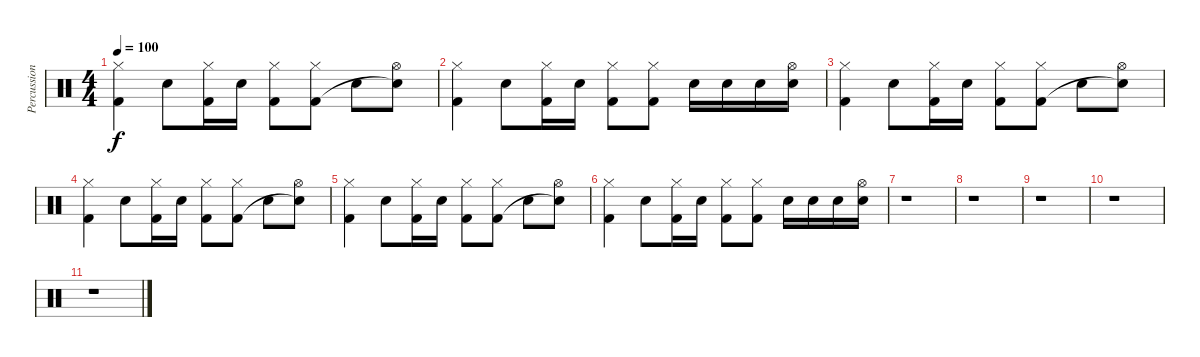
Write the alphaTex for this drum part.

\track ("Percussion" "Percussion") {instrument percussion}
\staff {score}
\articulation defaults
\ts (4 4)
\tempo 100
\clef neutral
\ks c
("Hi-Hat (closed)" "Kick (hit) 2").4{dy f} "Electric Snare (hit)".8 ("Hi-Hat (closed)" "Kick (hit) 2").16 "Electric Snare (hit)".16 ("Hi-Hat (closed)" "Kick (hit) 2").8 ("Hi-Hat (closed)" "Kick (hit) 2").8 "Electric Snare (hit)".8 ("Hi-Hat (open)" "Snare (hit)"{t}).8 |
("Hi-Hat (closed)" "Kick (hit) 2").4 "Electric Snare (hit)".8 ("Hi-Hat (closed)" "Kick (hit) 2").16 "Electric Snare (hit)".16 ("Hi-Hat (closed)" "Kick (hit) 2").8 ("Hi-Hat (closed)" "Kick (hit) 2").8 "Electric Snare (hit)".16 "Electric Snare (hit)".16 "Electric Snare (hit)".16 ("Hi-Hat (open)" "Electric Snare (hit)").16 |
("Hi-Hat (closed)" "Kick (hit) 2").4 "Electric Snare (hit)".8 ("Hi-Hat (closed)" "Kick (hit) 2").16 "Electric Snare (hit)".16 ("Hi-Hat (closed)" "Kick (hit) 2").8 ("Hi-Hat (closed)" "Kick (hit) 2").8 "Electric Snare (hit)".8 ("Hi-Hat (open)" "Snare (hit)"{t}).8 |
("Hi-Hat (closed)" "Kick (hit) 2").4 "Electric Snare (hit)".8 ("Hi-Hat (closed)" "Kick (hit) 2").16 "Electric Snare (hit)".16 ("Hi-Hat (closed)" "Kick (hit) 2").8 ("Hi-Hat (closed)" "Kick (hit) 2").8 "Electric Snare (hit)".8 ("Hi-Hat (open)" "Snare (hit)"{t}).8 |
("Hi-Hat (closed)" "Kick (hit) 2").4 "Electric Snare (hit)".8 ("Hi-Hat (closed)" "Kick (hit) 2").16 "Electric Snare (hit)".16 ("Hi-Hat (closed)" "Kick (hit) 2").8 ("Hi-Hat (closed)" "Kick (hit) 2").8 "Electric Snare (hit)".8 ("Hi-Hat (open)" "Snare (hit)"{t}).8 |
("Hi-Hat (closed)" "Kick (hit) 2").4 "Electric Snare (hit)".8 ("Hi-Hat (closed)" "Kick (hit) 2").16 "Electric Snare (hit)".16 ("Hi-Hat (closed)" "Kick (hit) 2").8 ("Hi-Hat (closed)" "Kick (hit) 2").8 "Electric Snare (hit)".16 "Electric Snare (hit)".16 "Electric Snare (hit)".16 ("Hi-Hat (open)" "Electric Snare (hit)").16 |
r.1 |
r.1 |
r.1 |
r.1 |
r.1
